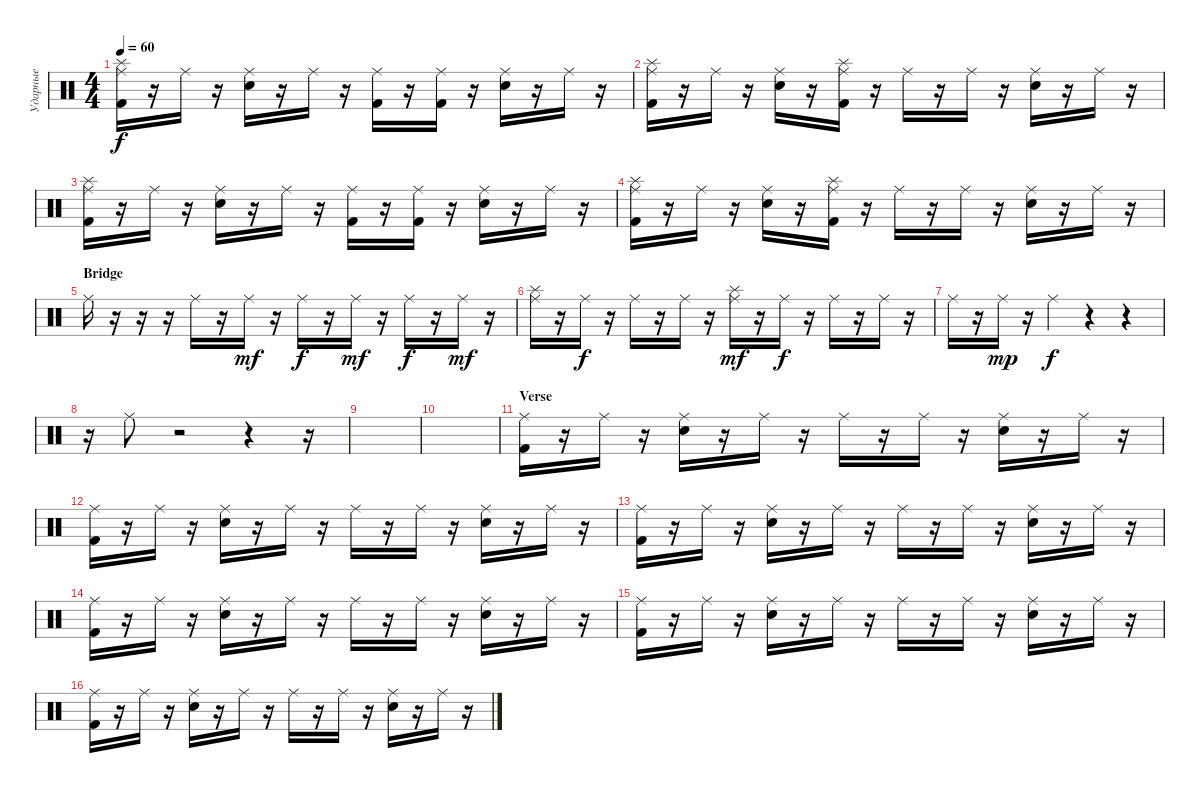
\track ("Ударные" "Ударные") {instrument percussion}
\staff {score}
\articulation defaults
\ts (4 4)
\tempo 60
\clef neutral
\ks c
("Splash (hit)" "Ride (middle)" "Kick (hit) 2").16{dy f} r.16 "Ride (middle)".16 r.16 ("Ride (middle)" "Electric Snare (hit)").16 r.16 "Ride (middle)".16 r.16 ("Ride (middle)" "Kick (hit) 2").16 r.16 ("Ride (middle)" "Kick (hit) 2").16 r.16 ("Ride (middle)" "Electric Snare (hit)").16 r.16 "Ride (middle)".16 r.16 |
("Splash (hit)" "Ride (middle)" "Kick (hit) 2").16 r.16 "Ride (middle)".16 r.16 ("Ride (middle)" "Electric Snare (hit)").16 r.16 ("Splash (hit)" "Ride (middle)" "Kick (hit) 2").16 r.16 "Ride (middle)".16 r.16 "Ride (middle)".16 r.16 ("Ride (middle)" "Electric Snare (hit)").16 r.16 "Ride (middle)".16 r.16 |
("Splash (hit)" "Ride (middle)" "Kick (hit) 2").16 r.16 "Ride (middle)".16 r.16 ("Ride (middle)" "Electric Snare (hit)").16 r.16 "Ride (middle)".16 r.16 ("Ride (middle)" "Kick (hit) 2").16 r.16 ("Ride (middle)" "Kick (hit) 2").16 r.16 ("Ride (middle)" "Electric Snare (hit)").16 r.16 "Ride (middle)".16 r.16 |
("Splash (hit)" "Ride (middle)" "Kick (hit) 2").16 r.16 "Ride (middle)".16 r.16 ("Ride (middle)" "Electric Snare (hit)").16 r.16 ("Splash (hit)" "Ride (middle)" "Kick (hit) 2").16 r.16 "Ride (middle)".16 r.16 "Ride (middle)".16 r.16 ("Ride (middle)" "Electric Snare (hit)").16 r.16 "Ride (middle)".16 r.16 |
\section ("" "Bridge")
"Ride (middle)".16 r.16 r.16 r.16 "Ride (middle)".16 r.16 "Ride (middle)".16{dy mf} r.16 "Ride (middle)".16{dy f} r.16 "Ride (middle)".16{dy mf} r.16 "Ride (middle)".16{dy f} r.16 "Ride (middle)".16{dy mf} r.16 |
("Splash (hit)" "Ride (middle)").16 r.16 "Ride (middle)".16{dy f} r.16 "Ride (middle)".16 r.16 "Ride (middle)".16 r.16 ("Splash (hit)" "Ride (middle)").16{dy mf} r.16 "Ride (middle)".16{dy f} r.16 "Ride (middle)".16 r.16 "Ride (middle)".16 r.16 |
"Ride (middle)".16 r.16 "Ride (middle)".16{dy mp} r.16 "Ride (middle)".4{dy f} r.4 r.4 |
r.16 "Ride (middle)".8 r.2 r.4 r.16 |
|
|
\section ("" "Verse")
("Ride (middle)" "Kick (hit) 2").16 r.16 "Ride (middle)".16 r.16 ("Ride (middle)" "Electric Snare (hit)").16 r.16 "Ride (middle)".16 r.16 "Ride (middle)".16 r.16 "Ride (middle)".16 r.16 ("Ride (middle)" "Electric Snare (hit)").16 r.16 "Ride (middle)".16 r.16 |
("Ride (middle)" "Kick (hit) 2").16 r.16 "Ride (middle)".16 r.16 ("Ride (middle)" "Electric Snare (hit)").16 r.16 "Ride (middle)".16 r.16 "Ride (middle)".16 r.16 "Ride (middle)".16 r.16 ("Ride (middle)" "Electric Snare (hit)").16 r.16 "Ride (middle)".16 r.16 |
("Ride (middle)" "Kick (hit) 2").16 r.16 "Ride (middle)".16 r.16 ("Ride (middle)" "Electric Snare (hit)").16 r.16 "Ride (middle)".16 r.16 "Ride (middle)".16 r.16 "Ride (middle)".16 r.16 ("Ride (middle)" "Electric Snare (hit)").16 r.16 "Ride (middle)".16 r.16 |
("Ride (middle)" "Kick (hit) 2").16 r.16 "Ride (middle)".16 r.16 ("Ride (middle)" "Electric Snare (hit)").16 r.16 "Ride (middle)".16 r.16 "Ride (middle)".16 r.16 "Ride (middle)".16 r.16 ("Ride (middle)" "Electric Snare (hit)").16 r.16 "Ride (middle)".16 r.16 |
("Ride (middle)" "Kick (hit) 2").16 r.16 "Ride (middle)".16 r.16 ("Ride (middle)" "Electric Snare (hit)").16 r.16 "Ride (middle)".16 r.16 "Ride (middle)".16 r.16 "Ride (middle)".16 r.16 ("Ride (middle)" "Electric Snare (hit)").16 r.16 "Ride (middle)".16 r.16 |
("Ride (middle)" "Kick (hit) 2").16 r.16 "Ride (middle)".16 r.16 ("Ride (middle)" "Electric Snare (hit)").16 r.16 "Ride (middle)".16 r.16 "Ride (middle)".16 r.16 "Ride (middle)".16 r.16 ("Ride (middle)" "Electric Snare (hit)").16 r.16 "Ride (middle)".16 r.16
